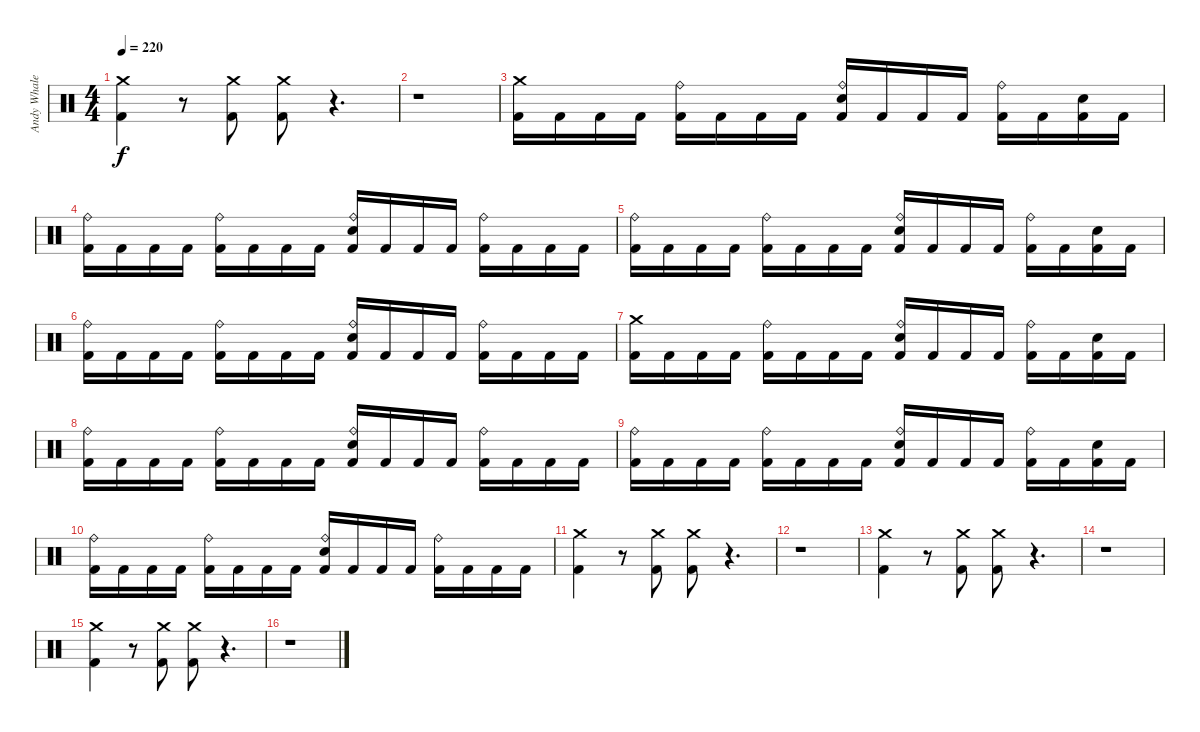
\track ("Andy Whale" "Andy Whale") {instrument percussion}
\staff {score}
\articulation defaults
\ts (4 4)
\tempo 220
\clef neutral
\ks c
("Crash medium (hit)" "Kick (hit) 2").4{dy f} r.8 ("Crash medium (hit)" "Kick (hit) 2").8 ("Crash medium (hit)" "Kick (hit) 2").8 r.4{d} |
r.1 |
("Crash medium (hit)" "Kick (hit) 2").16 "Kick (hit) 2".16 "Kick (hit) 2".16 "Kick (hit) 2".16 ("Ride (bell)" "Kick (hit) 2").16 "Kick (hit) 2".16 "Kick (hit) 2".16 "Kick (hit) 2".16 ("Ride (bell)" "Snare (hit) 2" "Kick (hit) 2").16 "Kick (hit) 2".16 "Kick (hit) 2".16 "Kick (hit) 2".16 ("Ride (bell)" "Kick (hit) 2").16 "Kick (hit) 2".16 ("Snare (hit) 2" "Kick (hit) 2").16 "Kick (hit) 2".16 |
("Ride (bell)" "Kick (hit) 2").16 "Kick (hit) 2".16 "Kick (hit) 2".16 "Kick (hit) 2".16 ("Ride (bell)" "Kick (hit) 2").16 "Kick (hit) 2".16 "Kick (hit) 2".16 "Kick (hit) 2".16 ("Ride (bell)" "Snare (hit) 2" "Kick (hit) 2").16 "Kick (hit) 2".16 "Kick (hit) 2".16 "Kick (hit) 2".16 ("Ride (bell)" "Kick (hit) 2").16 "Kick (hit) 2".16 "Kick (hit) 2".16 "Kick (hit) 2".16 |
("Ride (bell)" "Kick (hit) 2").16 "Kick (hit) 2".16 "Kick (hit) 2".16 "Kick (hit) 2".16 ("Ride (bell)" "Kick (hit) 2").16 "Kick (hit) 2".16 "Kick (hit) 2".16 "Kick (hit) 2".16 ("Ride (bell)" "Snare (hit) 2" "Kick (hit) 2").16 "Kick (hit) 2".16 "Kick (hit) 2".16 "Kick (hit) 2".16 ("Ride (bell)" "Kick (hit) 2").16 "Kick (hit) 2".16 ("Snare (hit) 2" "Kick (hit) 2").16 "Kick (hit) 2".16 |
("Ride (bell)" "Kick (hit) 2").16 "Kick (hit) 2".16 "Kick (hit) 2".16 "Kick (hit) 2".16 ("Ride (bell)" "Kick (hit) 2").16 "Kick (hit) 2".16 "Kick (hit) 2".16 "Kick (hit) 2".16 ("Ride (bell)" "Snare (hit) 2" "Kick (hit) 2").16 "Kick (hit) 2".16 "Kick (hit) 2".16 "Kick (hit) 2".16 ("Ride (bell)" "Kick (hit) 2").16 "Kick (hit) 2".16 "Kick (hit) 2".16 "Kick (hit) 2".16 |
("Crash medium (hit)" "Kick (hit) 2").16 "Kick (hit) 2".16 "Kick (hit) 2".16 "Kick (hit) 2".16 ("Ride (bell)" "Kick (hit) 2").16 "Kick (hit) 2".16 "Kick (hit) 2".16 "Kick (hit) 2".16 ("Ride (bell)" "Snare (hit) 2" "Kick (hit) 2").16 "Kick (hit) 2".16 "Kick (hit) 2".16 "Kick (hit) 2".16 ("Ride (bell)" "Kick (hit) 2").16 "Kick (hit) 2".16 ("Snare (hit) 2" "Kick (hit) 2").16 "Kick (hit) 2".16 |
("Ride (bell)" "Kick (hit) 2").16 "Kick (hit) 2".16 "Kick (hit) 2".16 "Kick (hit) 2".16 ("Ride (bell)" "Kick (hit) 2").16 "Kick (hit) 2".16 "Kick (hit) 2".16 "Kick (hit) 2".16 ("Ride (bell)" "Snare (hit) 2" "Kick (hit) 2").16 "Kick (hit) 2".16 "Kick (hit) 2".16 "Kick (hit) 2".16 ("Ride (bell)" "Kick (hit) 2").16 "Kick (hit) 2".16 "Kick (hit) 2".16 "Kick (hit) 2".16 |
("Ride (bell)" "Kick (hit) 2").16 "Kick (hit) 2".16 "Kick (hit) 2".16 "Kick (hit) 2".16 ("Ride (bell)" "Kick (hit) 2").16 "Kick (hit) 2".16 "Kick (hit) 2".16 "Kick (hit) 2".16 ("Ride (bell)" "Snare (hit) 2" "Kick (hit) 2").16 "Kick (hit) 2".16 "Kick (hit) 2".16 "Kick (hit) 2".16 ("Ride (bell)" "Kick (hit) 2").16 "Kick (hit) 2".16 ("Snare (hit) 2" "Kick (hit) 2").16 "Kick (hit) 2".16 |
("Ride (bell)" "Kick (hit) 2").16 "Kick (hit) 2".16 "Kick (hit) 2".16 "Kick (hit) 2".16 ("Ride (bell)" "Kick (hit) 2").16 "Kick (hit) 2".16 "Kick (hit) 2".16 "Kick (hit) 2".16 ("Ride (bell)" "Snare (hit) 2" "Kick (hit) 2").16 "Kick (hit) 2".16 "Kick (hit) 2".16 "Kick (hit) 2".16 ("Ride (bell)" "Kick (hit) 2").16 "Kick (hit) 2".16 "Kick (hit) 2".16 "Kick (hit) 2".16 |
("Crash medium (hit)" "Kick (hit) 2").4 r.8 ("Crash medium (hit)" "Kick (hit) 2").8 ("Crash medium (hit)" "Kick (hit) 2").8 r.4{d} |
r.1 |
("Crash medium (hit)" "Kick (hit) 2").4 r.8 ("Crash medium (hit)" "Kick (hit) 2").8 ("Crash medium (hit)" "Kick (hit) 2").8 r.4{d} |
r.1 |
("Crash medium (hit)" "Kick (hit) 2").4 r.8 ("Crash medium (hit)" "Kick (hit) 2").8 ("Crash medium (hit)" "Kick (hit) 2").8 r.4{d} |
r.1
